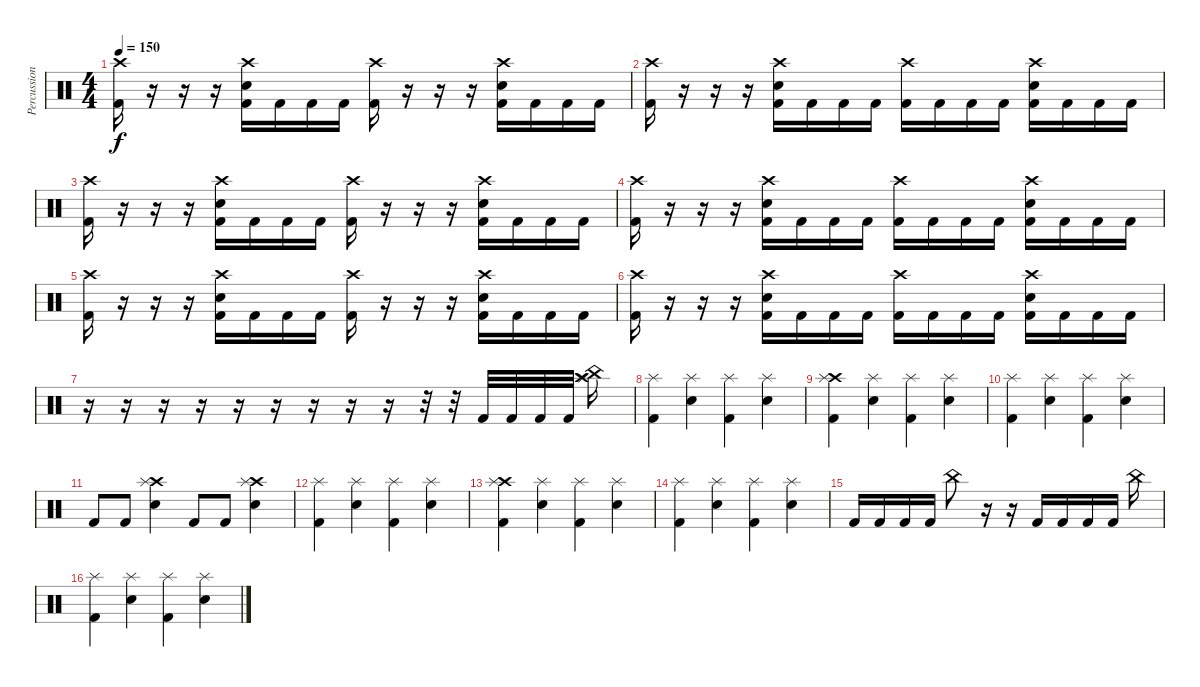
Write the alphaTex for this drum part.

\track ("Percussion" "Percussion") {instrument percussion}
\staff {score}
\articulation defaults
\ts (4 4)
\tempo 150
\clef neutral
\ks c
("Crash high (hit)" "Kick (hit) 2").16{dy f} r.16 r.16 r.16 ("Electric Snare (hit)" "Crash high (hit)" "Kick (hit) 2").16 "Kick (hit) 2".16 "Kick (hit) 2".16 "Kick (hit) 2".16 ("Crash high (hit)" "Kick (hit) 2").16 r.16 r.16 r.16 ("Electric Snare (hit)" "Crash high (hit)" "Kick (hit) 2").16 "Kick (hit) 2".16 "Kick (hit) 2".16 "Kick (hit) 2".16 |
("Crash high (hit)" "Kick (hit) 2").16 r.16 r.16 r.16 ("Electric Snare (hit)" "Crash high (hit)" "Kick (hit) 2").16 "Kick (hit) 2".16 "Kick (hit) 2".16 "Kick (hit) 2".16 ("Crash high (hit)" "Kick (hit) 2").16 "Kick (hit) 2".16 "Kick (hit) 2".16 "Kick (hit) 2".16 ("Electric Snare (hit)" "Crash high (hit)" "Kick (hit) 2").16 "Kick (hit) 2".16 "Kick (hit) 2".16 "Kick (hit) 2".16 |
("Crash high (hit)" "Kick (hit) 2").16 r.16 r.16 r.16 ("Electric Snare (hit)" "Crash high (hit)" "Kick (hit) 2").16 "Kick (hit) 2".16 "Kick (hit) 2".16 "Kick (hit) 2".16 ("Crash high (hit)" "Kick (hit) 2").16 r.16 r.16 r.16 ("Electric Snare (hit)" "Crash high (hit)" "Kick (hit) 2").16 "Kick (hit) 2".16 "Kick (hit) 2".16 "Kick (hit) 2".16 |
("Crash high (hit)" "Kick (hit) 2").16 r.16 r.16 r.16 ("Electric Snare (hit)" "Crash high (hit)" "Kick (hit) 2").16 "Kick (hit) 2".16 "Kick (hit) 2".16 "Kick (hit) 2".16 ("Crash high (hit)" "Kick (hit) 2").16 "Kick (hit) 2".16 "Kick (hit) 2".16 "Kick (hit) 2".16 ("Electric Snare (hit)" "Crash high (hit)" "Kick (hit) 2").16 "Kick (hit) 2".16 "Kick (hit) 2".16 "Kick (hit) 2".16 |
("Crash high (hit)" "Kick (hit) 2").16 r.16 r.16 r.16 ("Electric Snare (hit)" "Crash high (hit)" "Kick (hit) 2").16 "Kick (hit) 2".16 "Kick (hit) 2".16 "Kick (hit) 2".16 ("Crash high (hit)" "Kick (hit) 2").16 r.16 r.16 r.16 ("Electric Snare (hit)" "Crash high (hit)" "Kick (hit) 2").16 "Kick (hit) 2".16 "Kick (hit) 2".16 "Kick (hit) 2".16 |
("Crash high (hit)" "Kick (hit) 2").16 r.16 r.16 r.16 ("Electric Snare (hit)" "Crash high (hit)" "Kick (hit) 2").16 "Kick (hit) 2".16 "Kick (hit) 2".16 "Kick (hit) 2".16 ("Crash high (hit)" "Kick (hit) 2").16 "Kick (hit) 2".16 "Kick (hit) 2".16 "Kick (hit) 2".16 ("Electric Snare (hit)" "Crash high (hit)" "Kick (hit) 2").16 "Kick (hit) 2".16 "Kick (hit) 2".16 "Kick (hit) 2".16 |
r.16 r.16 r.16 r.16 r.16 r.16 r.16 r.16 r.16 r.32 r.32 "Kick (hit) 2".32 "Kick (hit) 2".32 "Kick (hit) 2".32 "Kick (hit) 2".32 ("Crash high (hit)" "Splash (hit)" "China (hit)").16 |
("Splash (hit)" "Kick (hit) 2").4 ("Splash (hit)" "Electric Snare (hit)").4 ("Splash (hit)" "Kick (hit) 2").4 ("Splash (hit)" "Electric Snare (hit)").4 |
("Crash high (hit)" "Splash (hit)" "Kick (hit) 2").4 ("Splash (hit)" "Electric Snare (hit)").4 ("Splash (hit)" "Kick (hit) 2").4 ("Splash (hit)" "Electric Snare (hit)").4 |
("Splash (hit)" "Kick (hit) 2").4 ("Splash (hit)" "Electric Snare (hit)").4 ("Splash (hit)" "Kick (hit) 2").4 ("Splash (hit)" "Electric Snare (hit)").4 |
"Kick (hit) 2".8 "Kick (hit) 2".8 ("Electric Snare (hit)" "Crash high (hit)" "Splash (hit)").4 "Kick (hit) 2".8 "Kick (hit) 2".8 ("Electric Snare (hit)" "Crash high (hit)" "Splash (hit)").4 |
("Splash (hit)" "Kick (hit) 2").4 ("Splash (hit)" "Electric Snare (hit)").4 ("Splash (hit)" "Kick (hit) 2").4 ("Splash (hit)" "Electric Snare (hit)").4 |
("Crash high (hit)" "Splash (hit)" "Kick (hit) 2").4 ("Splash (hit)" "Electric Snare (hit)").4 ("Splash (hit)" "Kick (hit) 2").4 ("Splash (hit)" "Electric Snare (hit)").4 |
("Splash (hit)" "Kick (hit) 2").4 ("Splash (hit)" "Electric Snare (hit)").4 ("Splash (hit)" "Kick (hit) 2").4 ("Splash (hit)" "Electric Snare (hit)").4 |
"Kick (hit) 2".16 "Kick (hit) 2".16 "Kick (hit) 2".16 "Kick (hit) 2".16 "China (hit)".8 r.16 r.16 "Kick (hit) 2".16 "Kick (hit) 2".16 "Kick (hit) 2".16 "Kick (hit) 2".16 "China (hit)".16 |
("Splash (hit)" "Kick (hit) 2").4 ("Splash (hit)" "Electric Snare (hit)").4 ("Splash (hit)" "Kick (hit) 2").4 ("Splash (hit)" "Electric Snare (hit)").4
